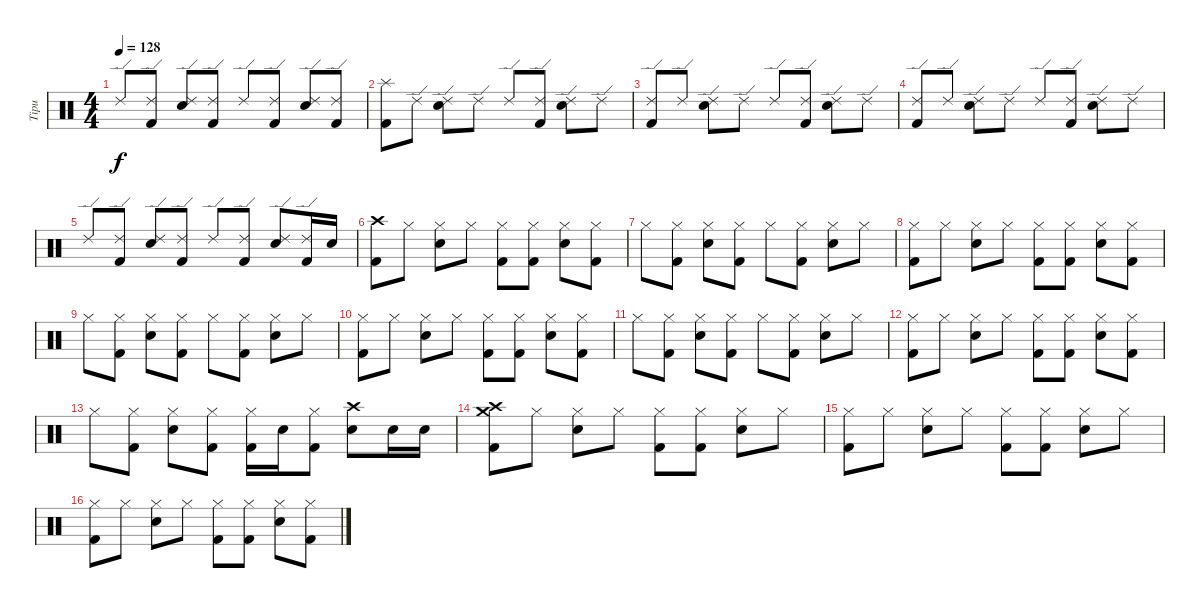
\track ("Tipu" "Tipu") {instrument percussion}
\staff {score}
\articulation defaults
\ts (4 4)
\tempo 128
\clef neutral
\ks c "Ride (edge) 2".8{dy f}
("Ride (edge) 2" "Kick (hit) 2").8 ("Ride (edge) 2" "Electric Snare (hit)").8 ("Ride (edge) 2" "Kick (hit) 2").8 "Ride (edge) 2".8 ("Ride (edge) 2" "Kick (hit) 2").8 ("Ride (edge) 2" "Electric Snare (hit)").8 ("Ride (edge) 2" "Kick (hit) 2").8 |
("Splash (hit)" "Kick (hit) 2").8 "Ride (edge) 2".8 ("Ride (edge) 2" "Electric Snare (hit)").8 "Ride (edge) 2".8 "Ride (edge) 2".8 ("Ride (edge) 2" "Kick (hit) 2").8 ("Ride (edge) 2" "Electric Snare (hit)").8 "Ride (edge) 2".8 |
("Ride (edge) 2" "Kick (hit) 2").8 "Ride (edge) 2".8 ("Ride (edge) 2" "Electric Snare (hit)").8 "Ride (edge) 2".8 "Ride (edge) 2".8 ("Ride (edge) 2" "Kick (hit) 2").8 ("Ride (edge) 2" "Electric Snare (hit)").8 "Ride (edge) 2".8 |
("Ride (edge) 2" "Kick (hit) 2").8 "Ride (edge) 2".8 ("Ride (edge) 2" "Electric Snare (hit)").8 "Ride (edge) 2".8 "Ride (edge) 2".8 ("Ride (edge) 2" "Kick (hit) 2").8 ("Ride (edge) 2" "Electric Snare (hit)").8 "Ride (edge) 2".8 |
"Ride (edge) 2".8 ("Ride (edge) 2" "Kick (hit) 2").8 ("Ride (edge) 2" "Electric Snare (hit)").8 ("Ride (edge) 2" "Kick (hit) 2").8 "Ride (edge) 2".8 ("Ride (edge) 2" "Kick (hit) 2").8 ("Ride (edge) 2" "Electric Snare (hit)").8 ("Ride (edge) 2" "Kick (hit) 2").16 "Electric Snare (hit)".16 |
("Crash high (hit)" "Kick (hit) 2").8 "Hi-Hat (closed)".8 ("Hi-Hat (closed)" "Electric Snare (hit)").8 "Hi-Hat (closed)".8 ("Hi-Hat (closed)" "Kick (hit) 2").8 ("Hi-Hat (closed)" "Kick (hit) 2").8 ("Hi-Hat (closed)" "Electric Snare (hit)").8 ("Hi-Hat (closed)" "Kick (hit) 2").8 |
"Hi-Hat (closed)".8 ("Hi-Hat (closed)" "Kick (hit) 2").8 ("Hi-Hat (closed)" "Electric Snare (hit)").8 ("Hi-Hat (closed)" "Kick (hit) 2").8 "Hi-Hat (closed)".8 ("Hi-Hat (closed)" "Kick (hit) 2").8 ("Hi-Hat (closed)" "Electric Snare (hit)").8 "Hi-Hat (closed)".8 |
("Hi-Hat (closed)" "Kick (hit) 2").8 "Hi-Hat (closed)".8 ("Hi-Hat (closed)" "Electric Snare (hit)").8 "Hi-Hat (closed)".8 ("Hi-Hat (closed)" "Kick (hit) 2").8 ("Hi-Hat (closed)" "Kick (hit) 2").8 ("Hi-Hat (closed)" "Electric Snare (hit)").8 ("Hi-Hat (closed)" "Kick (hit) 2").8 |
"Hi-Hat (closed)".8 ("Hi-Hat (closed)" "Kick (hit) 2").8 ("Hi-Hat (closed)" "Electric Snare (hit)").8 ("Hi-Hat (closed)" "Kick (hit) 2").8 "Hi-Hat (closed)".8 ("Hi-Hat (closed)" "Kick (hit) 2").8 ("Hi-Hat (closed)" "Electric Snare (hit)").8 "Hi-Hat (closed)".8 |
("Hi-Hat (closed)" "Kick (hit) 2").8 "Hi-Hat (closed)".8 ("Hi-Hat (closed)" "Electric Snare (hit)").8 "Hi-Hat (closed)".8 ("Hi-Hat (closed)" "Kick (hit) 2").8 ("Hi-Hat (closed)" "Kick (hit) 2").8 ("Hi-Hat (closed)" "Electric Snare (hit)").8 ("Hi-Hat (closed)" "Kick (hit) 2").8 |
"Hi-Hat (closed)".8 ("Hi-Hat (closed)" "Kick (hit) 2").8 ("Hi-Hat (closed)" "Electric Snare (hit)").8 ("Hi-Hat (closed)" "Kick (hit) 2").8 "Hi-Hat (closed)".8 ("Hi-Hat (closed)" "Kick (hit) 2").8 ("Hi-Hat (closed)" "Electric Snare (hit)").8 "Hi-Hat (closed)".8 |
("Hi-Hat (closed)" "Kick (hit) 2").8 "Hi-Hat (closed)".8 ("Hi-Hat (closed)" "Electric Snare (hit)").8 "Hi-Hat (closed)".8 ("Hi-Hat (closed)" "Kick (hit) 2").8 ("Hi-Hat (closed)" "Kick (hit) 2").8 ("Hi-Hat (closed)" "Electric Snare (hit)").8 ("Hi-Hat (closed)" "Kick (hit) 2").8 |
"Hi-Hat (closed)".8 ("Hi-Hat (closed)" "Kick (hit) 2").8 ("Hi-Hat (closed)" "Electric Snare (hit)").8 ("Hi-Hat (closed)" "Kick (hit) 2").8 ("Hi-Hat (closed)" "Kick (hit) 2").16 "Electric Snare (hit)".16 ("Hi-Hat (closed)" "Kick (hit) 2").8 ("Crash high (hit)" "Electric Snare (hit)").8 "Electric Snare (hit)".16 "Electric Snare (hit)".16 |
("Crash medium (hit)" "Crash high (hit)" "Kick (hit) 2").8 "Hi-Hat (closed)".8 ("Hi-Hat (closed)" "Electric Snare (hit)").8 "Hi-Hat (closed)".8 ("Hi-Hat (closed)" "Kick (hit) 2").8 ("Hi-Hat (closed)" "Kick (hit) 2").8 ("Hi-Hat (closed)" "Electric Snare (hit)").8 "Hi-Hat (closed)".8 |
("Hi-Hat (closed)" "Kick (hit) 2").8 "Hi-Hat (closed)".8 ("Hi-Hat (closed)" "Electric Snare (hit)").8 "Hi-Hat (closed)".8 ("Hi-Hat (closed)" "Kick (hit) 2").8 ("Hi-Hat (closed)" "Kick (hit) 2").8 ("Hi-Hat (closed)" "Electric Snare (hit)").8 "Hi-Hat (closed)".8 |
("Hi-Hat (closed)" "Kick (hit) 2").8 "Hi-Hat (closed)".8 ("Hi-Hat (closed)" "Electric Snare (hit)").8 "Hi-Hat (closed)".8 ("Hi-Hat (closed)" "Kick (hit) 2").8 ("Hi-Hat (closed)" "Kick (hit) 2").8 ("Hi-Hat (closed)" "Electric Snare (hit)").8 ("Hi-Hat (closed)" "Kick (hit) 2").8
